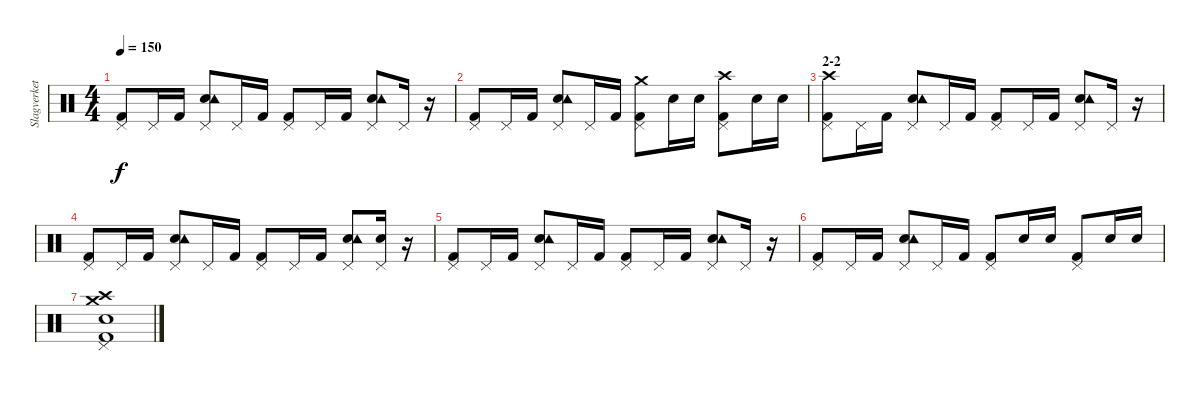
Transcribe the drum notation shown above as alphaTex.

\track ("Slagverket!" "Slagverket") {instrument percussion}
\staff {score}
\articulation defaults
\ts (4 4)
\tempo 150
\clef neutral
\ks c
("Kick (hit) 2" "Pedal Hi-Hat (hit)").8{dy f} "Pedal Hi-Hat (hit)".16 "Kick (hit) 2".16 ("Snare (hit) 2" "Tambourine (hit)" "Pedal Hi-Hat (hit)").8 "Pedal Hi-Hat (hit)".16 "Kick (hit) 2".16 ("Kick (hit) 2" "Pedal Hi-Hat (hit)").8 "Pedal Hi-Hat (hit)".16 "Kick (hit) 2".16 ("Snare (hit) 2" "Tambourine (hit)" "Pedal Hi-Hat (hit)").8 "Pedal Hi-Hat (hit)".16 r.16 |
("Kick (hit) 2" "Pedal Hi-Hat (hit)").8 "Pedal Hi-Hat (hit)".16 "Kick (hit) 2".16 ("Snare (hit) 2" "Tambourine (hit)" "Pedal Hi-Hat (hit)").8 "Pedal Hi-Hat (hit)".16 "Kick (hit) 2".16 ("Kick (hit) 2" "Crash medium (hit)" "Pedal Hi-Hat (hit)").8 "Snare (hit) 2".16 "Snare (hit) 2".16 ("Kick (hit) 2" "Crash high (hit)" "Pedal Hi-Hat (hit)").8 "Snare (hit) 2".16 "Snare (hit) 2".16 |
\section ("" "2-2")
("Kick (hit) 2" "Crash high (hit)" "Pedal Hi-Hat (hit)").8 "Pedal Hi-Hat (hit)".16 "Kick (hit) 2".16 ("Snare (hit) 2" "Tambourine (hit)" "Pedal Hi-Hat (hit)").8 "Pedal Hi-Hat (hit)".16 "Kick (hit) 2".16 ("Kick (hit) 2" "Pedal Hi-Hat (hit)").8 "Pedal Hi-Hat (hit)".16 "Kick (hit) 2".16 ("Snare (hit) 2" "Tambourine (hit)" "Pedal Hi-Hat (hit)").8 "Pedal Hi-Hat (hit)".16 r.16 |
("Kick (hit) 2" "Pedal Hi-Hat (hit)").8 "Pedal Hi-Hat (hit)".16 "Kick (hit) 2".16 ("Snare (hit) 2" "Tambourine (hit)" "Pedal Hi-Hat (hit)").8 "Pedal Hi-Hat (hit)".16 "Kick (hit) 2".16 ("Kick (hit) 2" "Pedal Hi-Hat (hit)").8 "Pedal Hi-Hat (hit)".16 "Kick (hit) 2".16 ("Snare (hit) 2" "Tambourine (hit)" "Pedal Hi-Hat (hit)").8 ("Snare (hit) 2" "Pedal Hi-Hat (hit)").16 r.16 |
("Kick (hit) 2" "Pedal Hi-Hat (hit)").8 "Pedal Hi-Hat (hit)".16 "Kick (hit) 2".16 ("Snare (hit) 2" "Tambourine (hit)" "Pedal Hi-Hat (hit)").8 "Pedal Hi-Hat (hit)".16 "Kick (hit) 2".16 ("Kick (hit) 2" "Pedal Hi-Hat (hit)").8 "Pedal Hi-Hat (hit)".16 "Kick (hit) 2".16 ("Snare (hit) 2" "Tambourine (hit)" "Pedal Hi-Hat (hit)").8 "Pedal Hi-Hat (hit)".16 r.16 |
("Kick (hit) 2" "Pedal Hi-Hat (hit)").8 "Pedal Hi-Hat (hit)".16 "Kick (hit) 2".16 ("Snare (hit) 2" "Tambourine (hit)" "Pedal Hi-Hat (hit)").8 "Pedal Hi-Hat (hit)".16 "Kick (hit) 2".16 ("Kick (hit) 2" "Pedal Hi-Hat (hit)").8 "Snare (hit) 2".16 "Snare (hit) 2".16 ("Kick (hit) 2" "Pedal Hi-Hat (hit)").8 "Snare (hit) 2".16 "Snare (hit) 2".16 |
("Crash high (hit)" "Crash medium (hit)" "Snare (hit) 2" "Kick (hit) 2" "Pedal Hi-Hat (hit)").1
